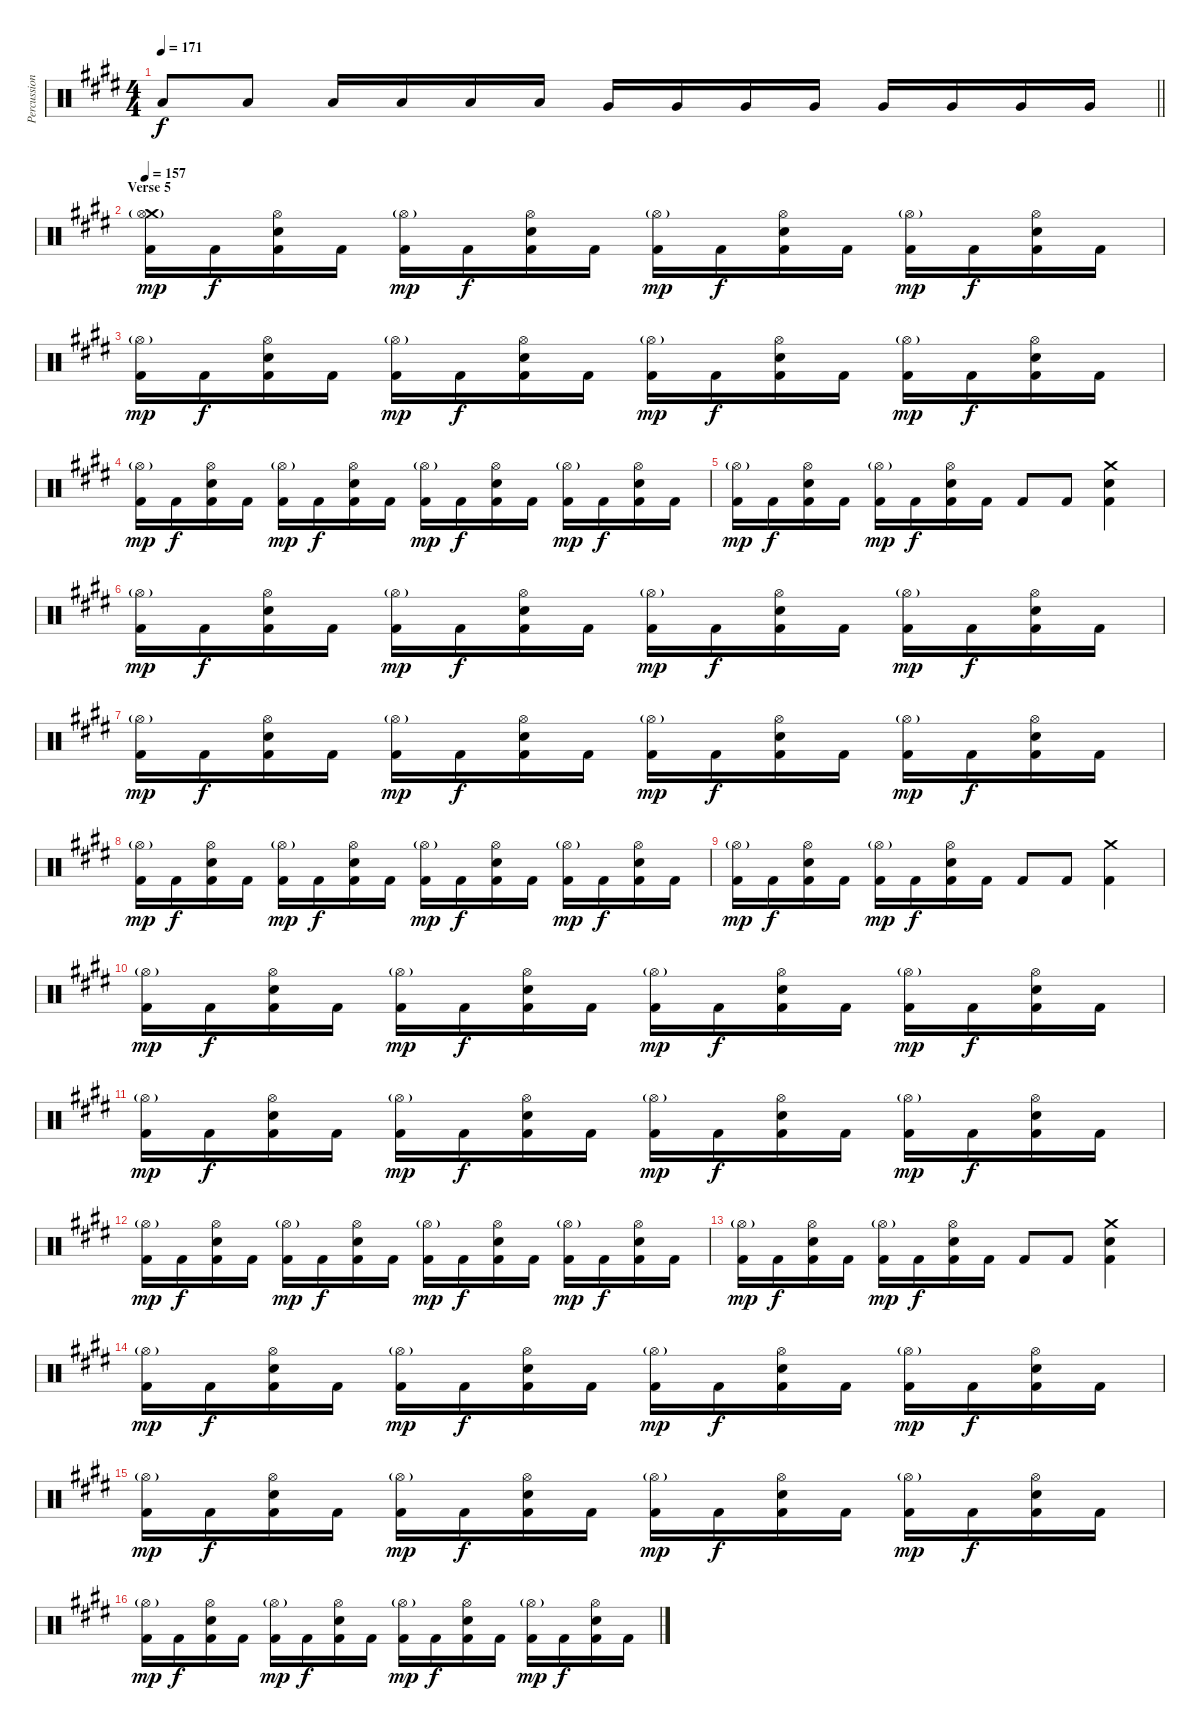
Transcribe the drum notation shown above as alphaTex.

\track ("Percussion (Thomen Stauch)" "Percussion") {instrument percussion}
\staff {score}
\articulation defaults
\ts (4 4)
\tempo 171
\clef neutral
\barLineRight lightlight
\ks c#minor "Low Tom (hit)".8{dy f} "Low Tom (hit)".8 "Low Tom (hit)".16 "Low Tom (hit)".16 "Low Tom (hit)".16 "Low Tom (hit)".16 "Very Low Tom (hit)".16 "Very Low Tom (hit)".16 "Very Low Tom (hit)".16 "Very Low Tom (hit)".16 "Very Low Tom (hit)".16 "Very Low Tom (hit)".16 "Very Low Tom (hit)".16 "Very Low Tom (hit)".16
|
\section ("" "Verse 5")
\tempo 157
("Crash medium (hit)" "Hi-Hat (open)"{g} "Kick (hit) 2").16{dy mp} "Kick (hit) 2".16{dy f} ("Hi-Hat (open)" "Snare (hit) 2" "Kick (hit) 2").16 "Kick (hit) 2".16 ("Hi-Hat (open)"{g} "Kick (hit) 2").16{dy mp} "Kick (hit) 2".16{dy f} ("Hi-Hat (open)" "Snare (hit) 2" "Kick (hit) 2").16 "Kick (hit) 2".16 ("Hi-Hat (open)"{g} "Kick (hit) 2").16{dy mp} "Kick (hit) 2".16{dy f} ("Hi-Hat (open)" "Snare (hit) 2" "Kick (hit) 2").16 "Kick (hit) 2".16 ("Hi-Hat (open)"{g} "Kick (hit) 2").16{dy mp} "Kick (hit) 2".16{dy f} ("Hi-Hat (open)" "Snare (hit) 2" "Kick (hit) 2").16 "Kick (hit) 2".16 |
("Hi-Hat (open)"{g} "Kick (hit) 2").16{dy mp} "Kick (hit) 2".16{dy f} ("Hi-Hat (open)" "Snare (hit) 2" "Kick (hit) 2").16 "Kick (hit) 2".16 ("Hi-Hat (open)"{g} "Kick (hit) 2").16{dy mp} "Kick (hit) 2".16{dy f} ("Hi-Hat (open)" "Snare (hit) 2" "Kick (hit) 2").16 "Kick (hit) 2".16 ("Hi-Hat (open)"{g} "Kick (hit) 2").16{dy mp} "Kick (hit) 2".16{dy f} ("Hi-Hat (open)" "Snare (hit) 2" "Kick (hit) 2").16 "Kick (hit) 2".16 ("Hi-Hat (open)"{g} "Kick (hit) 2").16{dy mp} "Kick (hit) 2".16{dy f} ("Hi-Hat (open)" "Snare (hit) 2" "Kick (hit) 2").16 "Kick (hit) 2".16 |
("Hi-Hat (open)"{g} "Kick (hit) 2").16{dy mp} "Kick (hit) 2".16{dy f} ("Hi-Hat (open)" "Snare (hit) 2" "Kick (hit) 2").16 "Kick (hit) 2".16 ("Hi-Hat (open)"{g} "Kick (hit) 2").16{dy mp} "Kick (hit) 2".16{dy f} ("Hi-Hat (open)" "Snare (hit) 2" "Kick (hit) 2").16 "Kick (hit) 2".16 ("Hi-Hat (open)"{g} "Kick (hit) 2").16{dy mp} "Kick (hit) 2".16{dy f} ("Hi-Hat (open)" "Snare (hit) 2" "Kick (hit) 2").16 "Kick (hit) 2".16 ("Hi-Hat (open)"{g} "Kick (hit) 2").16{dy mp} "Kick (hit) 2".16{dy f} ("Hi-Hat (open)" "Snare (hit) 2" "Kick (hit) 2").16 "Kick (hit) 2".16 |
("Hi-Hat (open)"{g} "Kick (hit) 2").16{dy mp} "Kick (hit) 2".16{dy f} ("Hi-Hat (open)" "Snare (hit) 2" "Kick (hit) 2").16 "Kick (hit) 2".16 ("Hi-Hat (open)"{g} "Kick (hit) 2").16{dy mp} "Kick (hit) 2".16{dy f} ("Hi-Hat (open)" "Snare (hit) 2" "Kick (hit) 2").16 "Kick (hit) 2".16 "Kick (hit) 2".8 "Kick (hit) 2".8 ("Crash medium (hit)" "Snare (hit) 2" "Kick (hit) 2").4 |
("Hi-Hat (open)"{g} "Kick (hit) 2").16{dy mp} "Kick (hit) 2".16{dy f} ("Hi-Hat (open)" "Snare (hit) 2" "Kick (hit) 2").16 "Kick (hit) 2".16 ("Hi-Hat (open)"{g} "Kick (hit) 2").16{dy mp} "Kick (hit) 2".16{dy f} ("Hi-Hat (open)" "Snare (hit) 2" "Kick (hit) 2").16 "Kick (hit) 2".16 ("Hi-Hat (open)"{g} "Kick (hit) 2").16{dy mp} "Kick (hit) 2".16{dy f} ("Hi-Hat (open)" "Snare (hit) 2" "Kick (hit) 2").16 "Kick (hit) 2".16 ("Hi-Hat (open)"{g} "Kick (hit) 2").16{dy mp} "Kick (hit) 2".16{dy f} ("Hi-Hat (open)" "Snare (hit) 2" "Kick (hit) 2").16 "Kick (hit) 2".16 |
("Hi-Hat (open)"{g} "Kick (hit) 2").16{dy mp} "Kick (hit) 2".16{dy f} ("Hi-Hat (open)" "Snare (hit) 2" "Kick (hit) 2").16 "Kick (hit) 2".16 ("Hi-Hat (open)"{g} "Kick (hit) 2").16{dy mp} "Kick (hit) 2".16{dy f} ("Hi-Hat (open)" "Snare (hit) 2" "Kick (hit) 2").16 "Kick (hit) 2".16 ("Hi-Hat (open)"{g} "Kick (hit) 2").16{dy mp} "Kick (hit) 2".16{dy f} ("Hi-Hat (open)" "Snare (hit) 2" "Kick (hit) 2").16 "Kick (hit) 2".16 ("Hi-Hat (open)"{g} "Kick (hit) 2").16{dy mp} "Kick (hit) 2".16{dy f} ("Hi-Hat (open)" "Snare (hit) 2" "Kick (hit) 2").16 "Kick (hit) 2".16 |
("Hi-Hat (open)"{g} "Kick (hit) 2").16{dy mp} "Kick (hit) 2".16{dy f} ("Hi-Hat (open)" "Snare (hit) 2" "Kick (hit) 2").16 "Kick (hit) 2".16 ("Hi-Hat (open)"{g} "Kick (hit) 2").16{dy mp} "Kick (hit) 2".16{dy f} ("Hi-Hat (open)" "Snare (hit) 2" "Kick (hit) 2").16 "Kick (hit) 2".16 ("Hi-Hat (open)"{g} "Kick (hit) 2").16{dy mp} "Kick (hit) 2".16{dy f} ("Hi-Hat (open)" "Snare (hit) 2" "Kick (hit) 2").16 "Kick (hit) 2".16 ("Hi-Hat (open)"{g} "Kick (hit) 2").16{dy mp} "Kick (hit) 2".16{dy f} ("Hi-Hat (open)" "Snare (hit) 2" "Kick (hit) 2").16 "Kick (hit) 2".16 |
("Hi-Hat (open)"{g} "Kick (hit) 2").16{dy mp} "Kick (hit) 2".16{dy f} ("Hi-Hat (open)" "Snare (hit) 2" "Kick (hit) 2").16 "Kick (hit) 2".16 ("Hi-Hat (open)"{g} "Kick (hit) 2").16{dy mp} "Kick (hit) 2".16{dy f} ("Hi-Hat (open)" "Snare (hit) 2" "Kick (hit) 2").16 "Kick (hit) 2".16 "Kick (hit) 2".8 "Kick (hit) 2".8 ("Crash medium (hit)" "Kick (hit) 2").4 |
("Hi-Hat (open)"{g} "Kick (hit) 2").16{dy mp} "Kick (hit) 2".16{dy f} ("Hi-Hat (open)" "Snare (hit) 2" "Kick (hit) 2").16 "Kick (hit) 2".16 ("Hi-Hat (open)"{g} "Kick (hit) 2").16{dy mp} "Kick (hit) 2".16{dy f} ("Hi-Hat (open)" "Snare (hit) 2" "Kick (hit) 2").16 "Kick (hit) 2".16 ("Hi-Hat (open)"{g} "Kick (hit) 2").16{dy mp} "Kick (hit) 2".16{dy f} ("Hi-Hat (open)" "Snare (hit) 2" "Kick (hit) 2").16 "Kick (hit) 2".16 ("Hi-Hat (open)"{g} "Kick (hit) 2").16{dy mp} "Kick (hit) 2".16{dy f} ("Hi-Hat (open)" "Snare (hit) 2" "Kick (hit) 2").16 "Kick (hit) 2".16 |
("Hi-Hat (open)"{g} "Kick (hit) 2").16{dy mp} "Kick (hit) 2".16{dy f} ("Hi-Hat (open)" "Snare (hit) 2" "Kick (hit) 2").16 "Kick (hit) 2".16 ("Hi-Hat (open)"{g} "Kick (hit) 2").16{dy mp} "Kick (hit) 2".16{dy f} ("Hi-Hat (open)" "Snare (hit) 2" "Kick (hit) 2").16 "Kick (hit) 2".16 ("Hi-Hat (open)"{g} "Kick (hit) 2").16{dy mp} "Kick (hit) 2".16{dy f} ("Hi-Hat (open)" "Snare (hit) 2" "Kick (hit) 2").16 "Kick (hit) 2".16 ("Hi-Hat (open)"{g} "Kick (hit) 2").16{dy mp} "Kick (hit) 2".16{dy f} ("Hi-Hat (open)" "Snare (hit) 2" "Kick (hit) 2").16 "Kick (hit) 2".16 |
("Hi-Hat (open)"{g} "Kick (hit) 2").16{dy mp} "Kick (hit) 2".16{dy f} ("Hi-Hat (open)" "Snare (hit) 2" "Kick (hit) 2").16 "Kick (hit) 2".16 ("Hi-Hat (open)"{g} "Kick (hit) 2").16{dy mp} "Kick (hit) 2".16{dy f} ("Hi-Hat (open)" "Snare (hit) 2" "Kick (hit) 2").16 "Kick (hit) 2".16 ("Hi-Hat (open)"{g} "Kick (hit) 2").16{dy mp} "Kick (hit) 2".16{dy f} ("Hi-Hat (open)" "Snare (hit) 2" "Kick (hit) 2").16 "Kick (hit) 2".16 ("Hi-Hat (open)"{g} "Kick (hit) 2").16{dy mp} "Kick (hit) 2".16{dy f} ("Hi-Hat (open)" "Snare (hit) 2" "Kick (hit) 2").16 "Kick (hit) 2".16 |
("Hi-Hat (open)"{g} "Kick (hit) 2").16{dy mp} "Kick (hit) 2".16{dy f} ("Hi-Hat (open)" "Snare (hit) 2" "Kick (hit) 2").16 "Kick (hit) 2".16 ("Hi-Hat (open)"{g} "Kick (hit) 2").16{dy mp} "Kick (hit) 2".16{dy f} ("Hi-Hat (open)" "Snare (hit) 2" "Kick (hit) 2").16 "Kick (hit) 2".16 "Kick (hit) 2".8 "Kick (hit) 2".8 ("Crash medium (hit)" "Snare (hit) 2" "Kick (hit) 2").4 |
("Hi-Hat (open)"{g} "Kick (hit) 2").16{dy mp} "Kick (hit) 2".16{dy f} ("Hi-Hat (open)" "Snare (hit) 2" "Kick (hit) 2").16 "Kick (hit) 2".16 ("Hi-Hat (open)"{g} "Kick (hit) 2").16{dy mp} "Kick (hit) 2".16{dy f} ("Hi-Hat (open)" "Snare (hit) 2" "Kick (hit) 2").16 "Kick (hit) 2".16 ("Hi-Hat (open)"{g} "Kick (hit) 2").16{dy mp} "Kick (hit) 2".16{dy f} ("Hi-Hat (open)" "Snare (hit) 2" "Kick (hit) 2").16 "Kick (hit) 2".16 ("Hi-Hat (open)"{g} "Kick (hit) 2").16{dy mp} "Kick (hit) 2".16{dy f} ("Hi-Hat (open)" "Snare (hit) 2" "Kick (hit) 2").16 "Kick (hit) 2".16 |
("Hi-Hat (open)"{g} "Kick (hit) 2").16{dy mp} "Kick (hit) 2".16{dy f} ("Hi-Hat (open)" "Snare (hit) 2" "Kick (hit) 2").16 "Kick (hit) 2".16 ("Hi-Hat (open)"{g} "Kick (hit) 2").16{dy mp} "Kick (hit) 2".16{dy f} ("Hi-Hat (open)" "Snare (hit) 2" "Kick (hit) 2").16 "Kick (hit) 2".16 ("Hi-Hat (open)"{g} "Kick (hit) 2").16{dy mp} "Kick (hit) 2".16{dy f} ("Hi-Hat (open)" "Snare (hit) 2" "Kick (hit) 2").16 "Kick (hit) 2".16 ("Hi-Hat (open)"{g} "Kick (hit) 2").16{dy mp} "Kick (hit) 2".16{dy f} ("Hi-Hat (open)" "Snare (hit) 2" "Kick (hit) 2").16 "Kick (hit) 2".16 |
("Hi-Hat (open)"{g} "Kick (hit) 2").16{dy mp} "Kick (hit) 2".16{dy f} ("Hi-Hat (open)" "Snare (hit) 2" "Kick (hit) 2").16 "Kick (hit) 2".16 ("Hi-Hat (open)"{g} "Kick (hit) 2").16{dy mp} "Kick (hit) 2".16{dy f} ("Hi-Hat (open)" "Snare (hit) 2" "Kick (hit) 2").16 "Kick (hit) 2".16 ("Hi-Hat (open)"{g} "Kick (hit) 2").16{dy mp} "Kick (hit) 2".16{dy f} ("Hi-Hat (open)" "Snare (hit) 2" "Kick (hit) 2").16 "Kick (hit) 2".16 ("Hi-Hat (open)"{g} "Kick (hit) 2").16{dy mp} "Kick (hit) 2".16{dy f} ("Hi-Hat (open)" "Snare (hit) 2" "Kick (hit) 2").16 "Kick (hit) 2".16
